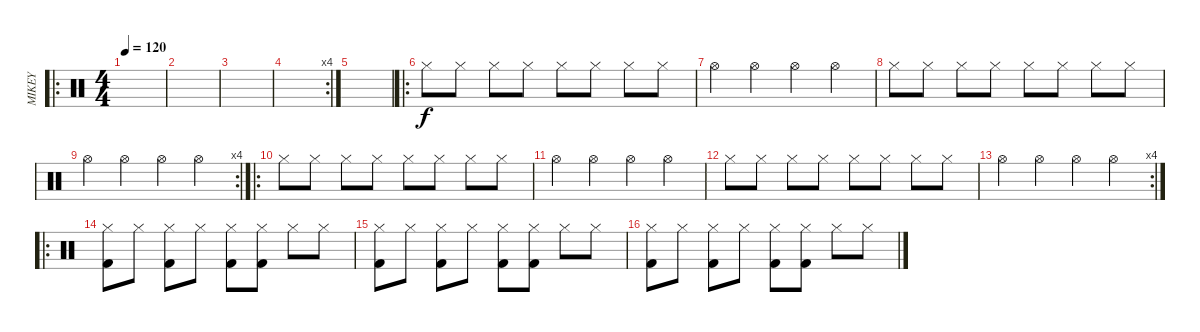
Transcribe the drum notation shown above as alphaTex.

\track ("MIKEY" "MIKEY") {instrument percussion}
\staff {score}
\articulation defaults
\ro
\ts (4 4)
\tempo 120
\clef neutral
\ks c
|
|
|
\rc 4
|
|
\ro "Hi-Hat (closed)".8 "Hi-Hat (closed)".8 "Hi-Hat (closed)".8 "Hi-Hat (closed)".8 "Hi-Hat (closed)".8 "Hi-Hat (closed)".8 "Hi-Hat (closed)".8 "Hi-Hat (closed)".8
|
"Hi-Hat (open)".4 "Hi-Hat (open)".4 "Hi-Hat (open)".4 "Hi-Hat (open)".4 |
"Hi-Hat (closed)".8 "Hi-Hat (closed)".8 "Hi-Hat (closed)".8 "Hi-Hat (closed)".8 "Hi-Hat (closed)".8 "Hi-Hat (closed)".8 "Hi-Hat (closed)".8 "Hi-Hat (closed)".8 |
\rc 4 "Hi-Hat (open)".4 "Hi-Hat (open)".4 "Hi-Hat (open)".4 "Hi-Hat (open)".4
|
\ro "Hi-Hat (closed)".8 "Hi-Hat (closed)".8 "Hi-Hat (closed)".8 "Hi-Hat (closed)".8 "Hi-Hat (closed)".8 "Hi-Hat (closed)".8 "Hi-Hat (closed)".8 "Hi-Hat (closed)".8
|
"Hi-Hat (open)".4 "Hi-Hat (open)".4 "Hi-Hat (open)".4 "Hi-Hat (open)".4 |
"Hi-Hat (closed)".8 "Hi-Hat (closed)".8 "Hi-Hat (closed)".8 "Hi-Hat (closed)".8 "Hi-Hat (closed)".8 "Hi-Hat (closed)".8 "Hi-Hat (closed)".8 "Hi-Hat (closed)".8 |
\rc 4 "Hi-Hat (open)".4 "Hi-Hat (open)".4 "Hi-Hat (open)".4 "Hi-Hat (open)".4
|
\ro
("Kick (hit) 2" "Hi-Hat (closed)").8 "Hi-Hat (closed)".8 ("Kick (hit) 2" "Hi-Hat (closed)").8 "Hi-Hat (closed)".8 ("Kick (hit) 2" "Hi-Hat (closed)").8 ("Kick (hit) 2" "Hi-Hat (closed)").8 "Hi-Hat (closed)".8 "Hi-Hat (closed)".8 |
("Kick (hit) 2" "Hi-Hat (closed)").8 "Hi-Hat (closed)".8 ("Kick (hit) 2" "Hi-Hat (closed)").8 "Hi-Hat (closed)".8 ("Kick (hit) 2" "Hi-Hat (closed)").8 ("Kick (hit) 2" "Hi-Hat (closed)").8 "Hi-Hat (closed)".8 "Hi-Hat (closed)".8 |
("Kick (hit) 2" "Hi-Hat (closed)").8 "Hi-Hat (closed)".8 ("Kick (hit) 2" "Hi-Hat (closed)").8 "Hi-Hat (closed)".8 ("Kick (hit) 2" "Hi-Hat (closed)").8 ("Kick (hit) 2" "Hi-Hat (closed)").8 "Hi-Hat (closed)".8 "Hi-Hat (closed)".8
